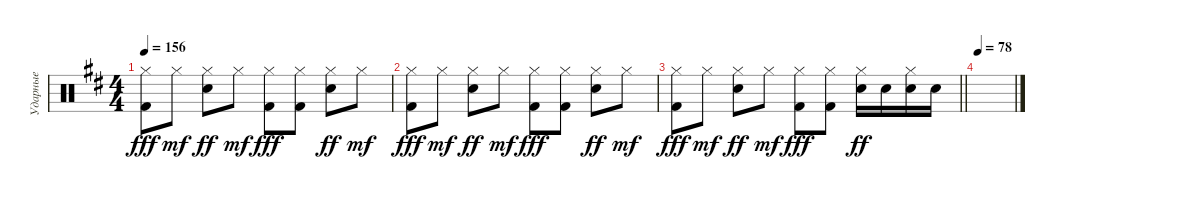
\track ("Ударные" "Ударные") {instrument percussion}
\staff {score}
\articulation defaults
\ts (4 4)
\tempo 156
\clef neutral
\ks bminor
("Hi-Hat (closed)" "Kick (hit) 2").8{dy fff} "Hi-Hat (closed)".8{dy mf} ("Hi-Hat (closed)" "Electric Snare (hit)").8{dy ff} "Hi-Hat (closed)".8{dy mf} ("Hi-Hat (closed)" "Kick (hit) 2").8{dy fff} ("Hi-Hat (closed)" "Kick (hit) 2").8 ("Hi-Hat (closed)" "Electric Snare (hit)").8{dy ff} "Hi-Hat (closed)".8{dy mf} |
("Hi-Hat (closed)" "Kick (hit) 2").8{dy fff} "Hi-Hat (closed)".8{dy mf} ("Hi-Hat (closed)" "Electric Snare (hit)").8{dy ff} "Hi-Hat (closed)".8{dy mf} ("Hi-Hat (closed)" "Kick (hit) 2").8{dy fff} ("Hi-Hat (closed)" "Kick (hit) 2").8 ("Hi-Hat (closed)" "Electric Snare (hit)").8{dy ff} "Hi-Hat (closed)".8{dy mf} |
\barLineRight lightlight
("Hi-Hat (closed)" "Kick (hit) 2").8{dy fff} "Hi-Hat (closed)".8{dy mf} ("Hi-Hat (closed)" "Electric Snare (hit)").8{dy ff} "Hi-Hat (closed)".8{dy mf} ("Hi-Hat (closed)" "Kick (hit) 2").8{dy fff} ("Hi-Hat (closed)" "Kick (hit) 2").8 ("Hi-Hat (closed)" "Electric Snare (hit)").16{dy ff} "Electric Snare (hit)".16 ("Hi-Hat (closed)" "Electric Snare (hit)").16 "Electric Snare (hit)".16 |
\tempo 78
